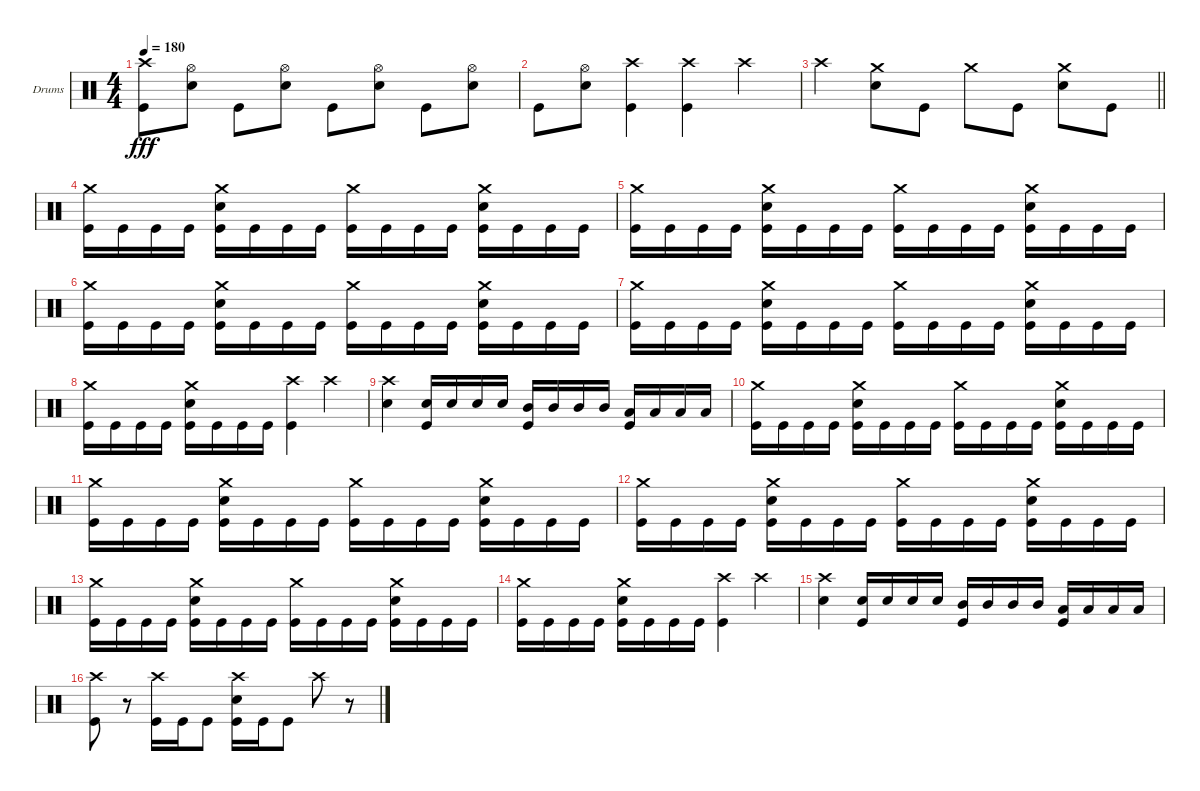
\bracketExtendMode groupsimilarinstruments
\firstSystemTrackNameOrientation horizontal
\otherSystemsTrackNameOrientation horizontal
\track ("Drumkit" "Drums") {instrument percussion}
\staff {score}
\articulation defaults
\ts (4 4)
\tempo 180
\clef neutral
\ks c
("Crash high (hit)" "Kick (hit)").8{dy fff} ("Hi-Hat (open)" "Snare (hit) 2").8 "Kick (hit)".8 ("Hi-Hat (open)" "Snare (hit) 2").8 "Kick (hit)".8 ("Hi-Hat (open)" "Snare (hit) 2").8 "Kick (hit)".8 ("Hi-Hat (open)" "Snare (hit) 2").8 |
"Kick (hit)".8 ("Hi-Hat (open)" "Snare (hit) 2").8 ("Crash high (hit)" "Kick (hit)").4 ("Crash high (hit)" "Kick (hit)").4 "Crash high (hit)".4 |
\barLineRight lightlight "Crash high (hit)".4
("Crash medium (hit)" "Snare (hit) 2").8 "Kick (hit)".8 "Crash medium (hit)".8 "Kick (hit)".8 ("Crash medium (hit)" "Snare (hit) 2").8 "Kick (hit)".8 |
("Crash medium (hit)" "Kick (hit)").16 "Kick (hit)".16 "Kick (hit)".16 "Kick (hit)".16 ("Crash medium (hit)" "Snare (hit) 2" "Kick (hit)").16 "Kick (hit)".16 "Kick (hit)".16 "Kick (hit)".16 ("Crash medium (hit)" "Kick (hit)").16 "Kick (hit)".16 "Kick (hit)".16 "Kick (hit)".16 ("Crash medium (hit)" "Snare (hit) 2" "Kick (hit)").16 "Kick (hit)".16 "Kick (hit)".16 "Kick (hit)".16 |
("Crash medium (hit)" "Kick (hit)").16 "Kick (hit)".16 "Kick (hit)".16 "Kick (hit)".16 ("Crash medium (hit)" "Snare (hit) 2" "Kick (hit)").16 "Kick (hit)".16 "Kick (hit)".16 "Kick (hit)".16 ("Crash medium (hit)" "Kick (hit)").16 "Kick (hit)".16 "Kick (hit)".16 "Kick (hit)".16 ("Crash medium (hit)" "Snare (hit) 2" "Kick (hit)").16 "Kick (hit)".16 "Kick (hit)".16 "Kick (hit)".16 |
("Crash medium (hit)" "Kick (hit)").16 "Kick (hit)".16 "Kick (hit)".16 "Kick (hit)".16 ("Crash medium (hit)" "Snare (hit) 2" "Kick (hit)").16 "Kick (hit)".16 "Kick (hit)".16 "Kick (hit)".16 ("Crash medium (hit)" "Kick (hit)").16 "Kick (hit)".16 "Kick (hit)".16 "Kick (hit)".16 ("Crash medium (hit)" "Snare (hit) 2" "Kick (hit)").16 "Kick (hit)".16 "Kick (hit)".16 "Kick (hit)".16 |
("Crash medium (hit)" "Kick (hit)").16 "Kick (hit)".16 "Kick (hit)".16 "Kick (hit)".16 ("Crash medium (hit)" "Snare (hit) 2" "Kick (hit)").16 "Kick (hit)".16 "Kick (hit)".16 "Kick (hit)".16 ("Crash medium (hit)" "Kick (hit)").16 "Kick (hit)".16 "Kick (hit)".16 "Kick (hit)".16 ("Crash medium (hit)" "Snare (hit) 2" "Kick (hit)").16 "Kick (hit)".16 "Kick (hit)".16 "Kick (hit)".16 |
("Crash medium (hit)" "Kick (hit)").16 "Kick (hit)".16 "Kick (hit)".16 "Kick (hit)".16 ("Crash medium (hit)" "Snare (hit) 2" "Kick (hit)").16 "Kick (hit)".16 "Kick (hit)".16 "Kick (hit)".16 ("Crash high (hit)" "Kick (hit)").4 "Crash high (hit)".4 |
("Crash high (hit)" "Snare (hit) 2").4 ("Snare (hit) 2" "Kick (hit)").16 "Snare (hit) 2".16 "Snare (hit) 2".16 "Snare (hit) 2".16 ("Mid Tom (hit)" "Kick (hit)").16 "Mid Tom (hit)".16 "Mid Tom (hit)".16 "Mid Tom (hit)".16 ("Low Tom (hit)" "Kick (hit)").16 "Low Tom (hit)".16 "Low Tom (hit)".16 "Low Tom (hit)".16 |
("Crash medium (hit)" "Kick (hit)").16 "Kick (hit)".16 "Kick (hit)".16 "Kick (hit)".16 ("Crash medium (hit)" "Snare (hit) 2" "Kick (hit)").16 "Kick (hit)".16 "Kick (hit)".16 "Kick (hit)".16 ("Crash medium (hit)" "Kick (hit)").16 "Kick (hit)".16 "Kick (hit)".16 "Kick (hit)".16 ("Crash medium (hit)" "Snare (hit) 2" "Kick (hit)").16 "Kick (hit)".16 "Kick (hit)".16 "Kick (hit)".16 |
("Crash medium (hit)" "Kick (hit)").16 "Kick (hit)".16 "Kick (hit)".16 "Kick (hit)".16 ("Crash medium (hit)" "Snare (hit) 2" "Kick (hit)").16 "Kick (hit)".16 "Kick (hit)".16 "Kick (hit)".16 ("Crash medium (hit)" "Kick (hit)").16 "Kick (hit)".16 "Kick (hit)".16 "Kick (hit)".16 ("Crash medium (hit)" "Snare (hit) 2" "Kick (hit)").16 "Kick (hit)".16 "Kick (hit)".16 "Kick (hit)".16 |
("Crash medium (hit)" "Kick (hit)").16 "Kick (hit)".16 "Kick (hit)".16 "Kick (hit)".16 ("Crash medium (hit)" "Snare (hit) 2" "Kick (hit)").16 "Kick (hit)".16 "Kick (hit)".16 "Kick (hit)".16 ("Crash medium (hit)" "Kick (hit)").16 "Kick (hit)".16 "Kick (hit)".16 "Kick (hit)".16 ("Crash medium (hit)" "Snare (hit) 2" "Kick (hit)").16 "Kick (hit)".16 "Kick (hit)".16 "Kick (hit)".16 |
("Crash medium (hit)" "Kick (hit)").16 "Kick (hit)".16 "Kick (hit)".16 "Kick (hit)".16 ("Crash medium (hit)" "Snare (hit) 2" "Kick (hit)").16 "Kick (hit)".16 "Kick (hit)".16 "Kick (hit)".16 ("Crash medium (hit)" "Kick (hit)").16 "Kick (hit)".16 "Kick (hit)".16 "Kick (hit)".16 ("Crash medium (hit)" "Snare (hit) 2" "Kick (hit)").16 "Kick (hit)".16 "Kick (hit)".16 "Kick (hit)".16 |
("Crash medium (hit)" "Kick (hit)").16 "Kick (hit)".16 "Kick (hit)".16 "Kick (hit)".16 ("Crash medium (hit)" "Snare (hit) 2" "Kick (hit)").16 "Kick (hit)".16 "Kick (hit)".16 "Kick (hit)".16 ("Crash high (hit)" "Kick (hit)").4 "Crash high (hit)".4 |
("Crash high (hit)" "Snare (hit) 2").4 ("Snare (hit) 2" "Kick (hit)").16 "Snare (hit) 2".16 "Snare (hit) 2".16 "Snare (hit) 2".16 ("Mid Tom (hit)" "Kick (hit)").16 "Mid Tom (hit)".16 "Mid Tom (hit)".16 "Mid Tom (hit)".16 ("Low Tom (hit)" "Kick (hit)").16 "Low Tom (hit)".16 "Low Tom (hit)".16 "Low Tom (hit)".16 |
("Crash high (hit)" "Kick (hit)").8 r.8 ("Crash high (hit)" "Kick (hit)").16 "Kick (hit)".16 "Kick (hit)".8 ("Crash high (hit)" "Snare (hit) 2" "Kick (hit)").16 "Kick (hit)".16 "Kick (hit)".8 "Crash high (hit)".8 r.8
